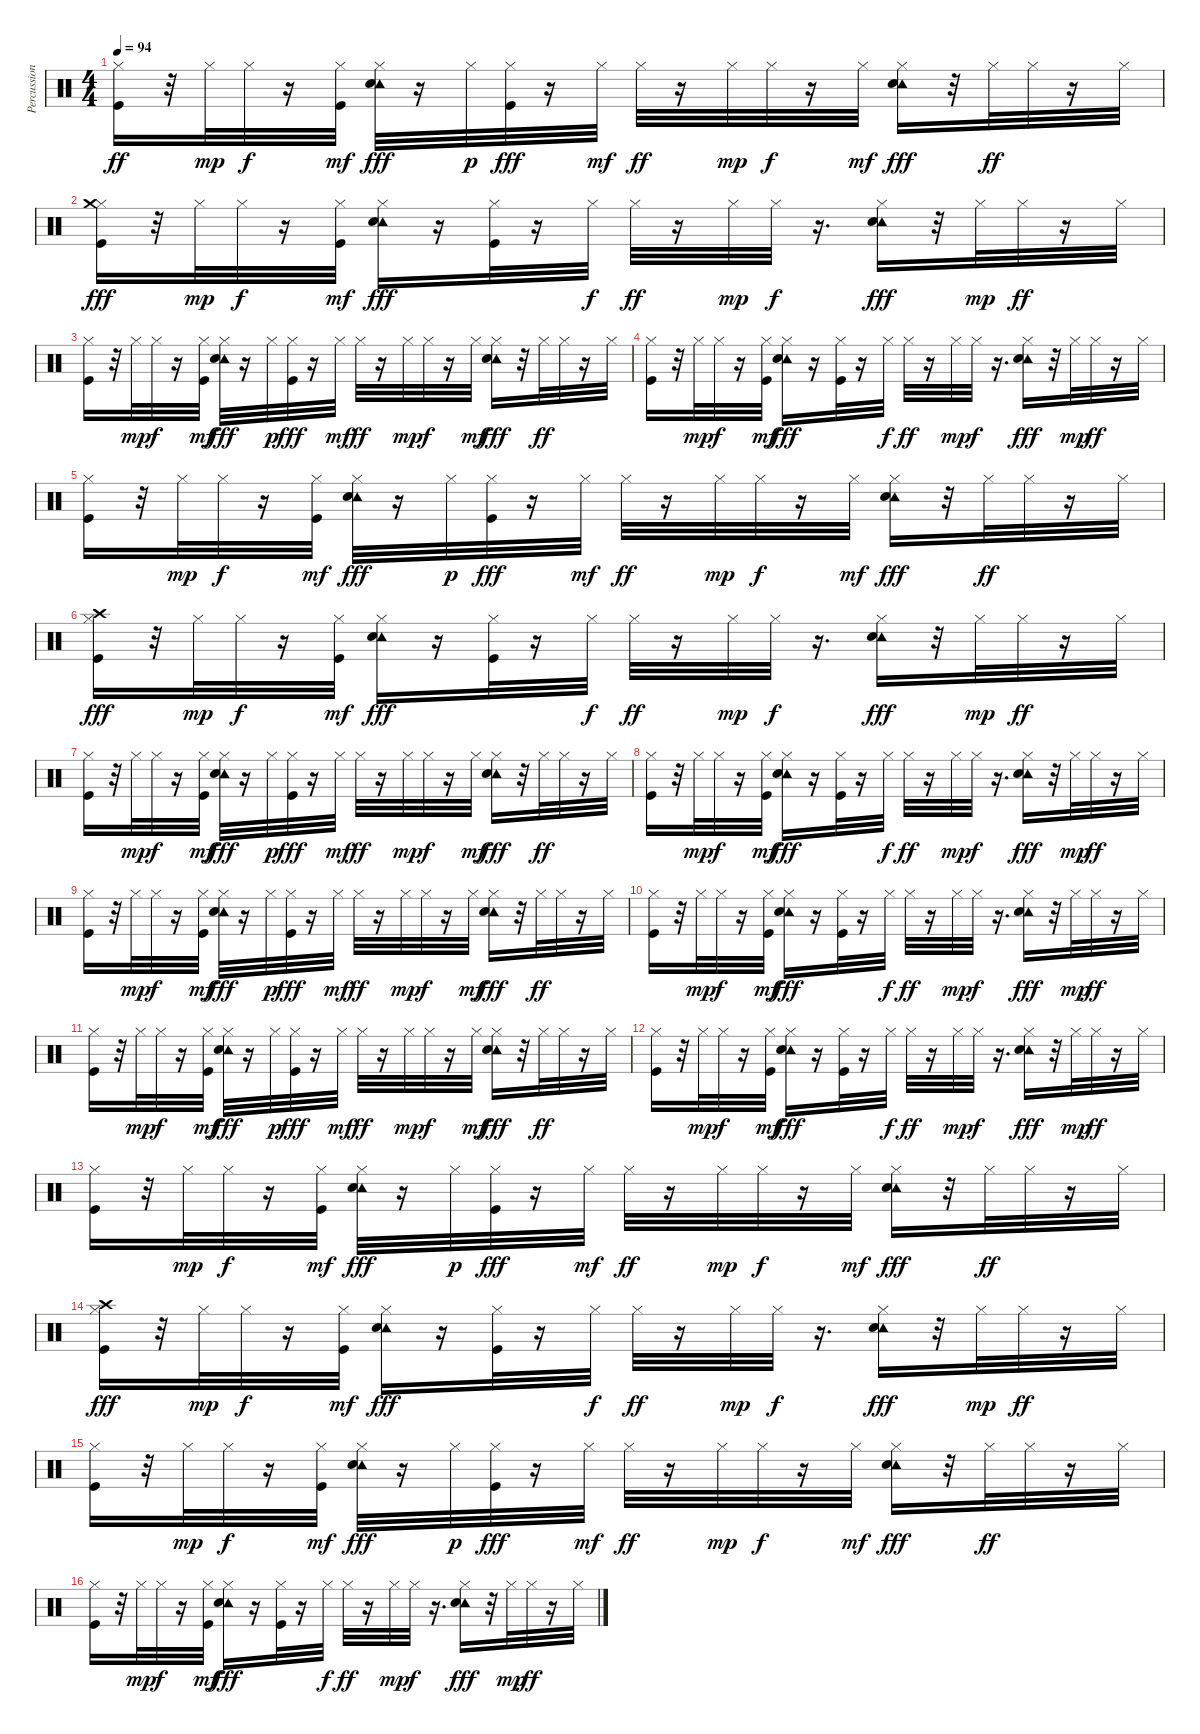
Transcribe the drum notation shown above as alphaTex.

\track ("Percussion" "Percussion") {instrument percussion}
\staff {score}
\articulation defaults
\ts (4 4)
\tempo 94
\clef neutral
\ks c
("Kick (hit)" "Hi-Hat (closed)").16{dy ff} r.32 "Hi-Hat (closed)".32{dy mp} "Hi-Hat (closed)".32{dy f} r.16 ("Kick (hit)" "Hi-Hat (closed)").32{dy mf} ("Hi-Hat (closed)" "Tambourine (hit)" "Snare (hit) 2").32{dy fff} r.16 "Hi-Hat (closed)".32{dy p} ("Kick (hit)" "Hi-Hat (closed)").32{dy fff} r.16 "Hi-Hat (closed)".32{dy mf} "Hi-Hat (closed)".32{dy ff} r.16 "Hi-Hat (closed)".32{dy mp} "Hi-Hat (closed)".32{dy f} r.16 "Hi-Hat (closed)".32{dy mf} ("Hi-Hat (closed)" "Tambourine (hit)" "Snare (hit) 2").16{dy fff} r.32 "Hi-Hat (closed)".32{dy ff} "Hi-Hat (closed)".32 r.16 "Hi-Hat (closed)".32 |
("Kick (hit)" "Hi-Hat (closed)" "Crash medium (hit)").16{dy fff} r.32 "Hi-Hat (closed)".32{dy mp} "Hi-Hat (closed)".32{dy f} r.16 ("Kick (hit)" "Hi-Hat (closed)").32{dy mf} ("Hi-Hat (closed)" "Tambourine (hit)" "Snare (hit) 2").16{dy fff} r.16 ("Kick (hit)" "Hi-Hat (closed)").32 r.16 "Hi-Hat (closed)".32{dy f} "Hi-Hat (closed)".32{dy ff} r.16 "Hi-Hat (closed)".32{dy mp} "Hi-Hat (closed)".32{dy f} r.16{d} ("Hi-Hat (closed)" "Tambourine (hit)" "Snare (hit) 2").16{dy fff} r.32 "Hi-Hat (closed)".32{dy mp} "Hi-Hat (closed)".32{dy ff} r.16 "Hi-Hat (closed)".32 |
("Kick (hit)" "Hi-Hat (closed)").16 r.32 "Hi-Hat (closed)".32{dy mp} "Hi-Hat (closed)".32{dy f} r.16 ("Kick (hit)" "Hi-Hat (closed)").32{dy mf} ("Hi-Hat (closed)" "Tambourine (hit)" "Snare (hit) 2").32{dy fff} r.16 "Hi-Hat (closed)".32{dy p} ("Kick (hit)" "Hi-Hat (closed)").32{dy fff} r.16 "Hi-Hat (closed)".32{dy mf} "Hi-Hat (closed)".32{dy ff} r.16 "Hi-Hat (closed)".32{dy mp} "Hi-Hat (closed)".32{dy f} r.16 "Hi-Hat (closed)".32{dy mf} ("Hi-Hat (closed)" "Tambourine (hit)" "Snare (hit) 2").16{dy fff} r.32 "Hi-Hat (closed)".32{dy ff} "Hi-Hat (closed)".32 r.16 "Hi-Hat (closed)".32 |
("Kick (hit)" "Hi-Hat (closed)").16 r.32 "Hi-Hat (closed)".32{dy mp} "Hi-Hat (closed)".32{dy f} r.16 ("Kick (hit)" "Hi-Hat (closed)").32{dy mf} ("Hi-Hat (closed)" "Tambourine (hit)" "Snare (hit) 2").16{dy fff} r.16 ("Kick (hit)" "Hi-Hat (closed)").32 r.16 "Hi-Hat (closed)".32{dy f} "Hi-Hat (closed)".32{dy ff} r.16 "Hi-Hat (closed)".32{dy mp} "Hi-Hat (closed)".32{dy f} r.16{d} ("Hi-Hat (closed)" "Tambourine (hit)" "Snare (hit) 2").16{dy fff} r.32 "Hi-Hat (closed)".32{dy mp} "Hi-Hat (closed)".32{dy ff} r.16 "Hi-Hat (closed)".32 |
("Kick (hit)" "Hi-Hat (closed)").16 r.32 "Hi-Hat (closed)".32{dy mp} "Hi-Hat (closed)".32{dy f} r.16 ("Kick (hit)" "Hi-Hat (closed)").32{dy mf} ("Hi-Hat (closed)" "Tambourine (hit)" "Snare (hit) 2").32{dy fff} r.16 "Hi-Hat (closed)".32{dy p} ("Kick (hit)" "Hi-Hat (closed)").32{dy fff} r.16 "Hi-Hat (closed)".32{dy mf} "Hi-Hat (closed)".32{dy ff} r.16 "Hi-Hat (closed)".32{dy mp} "Hi-Hat (closed)".32{dy f} r.16 "Hi-Hat (closed)".32{dy mf} ("Hi-Hat (closed)" "Tambourine (hit)" "Snare (hit) 2").16{dy fff} r.32 "Hi-Hat (closed)".32{dy ff} "Hi-Hat (closed)".32 r.16 "Hi-Hat (closed)".32 |
("Kick (hit)" "Hi-Hat (closed)" "Crash high (hit)").16{dy fff} r.32 "Hi-Hat (closed)".32{dy mp} "Hi-Hat (closed)".32{dy f} r.16 ("Kick (hit)" "Hi-Hat (closed)").32{dy mf} ("Hi-Hat (closed)" "Tambourine (hit)" "Snare (hit) 2").16{dy fff} r.16 ("Kick (hit)" "Hi-Hat (closed)").32 r.16 "Hi-Hat (closed)".32{dy f} "Hi-Hat (closed)".32{dy ff} r.16 "Hi-Hat (closed)".32{dy mp} "Hi-Hat (closed)".32{dy f} r.16{d} ("Hi-Hat (closed)" "Tambourine (hit)" "Snare (hit) 2").16{dy fff} r.32 "Hi-Hat (closed)".32{dy mp} "Hi-Hat (closed)".32{dy ff} r.16 "Hi-Hat (closed)".32 |
("Kick (hit)" "Hi-Hat (closed)").16 r.32 "Hi-Hat (closed)".32{dy mp} "Hi-Hat (closed)".32{dy f} r.16 ("Kick (hit)" "Hi-Hat (closed)").32{dy mf} ("Hi-Hat (closed)" "Tambourine (hit)" "Snare (hit) 2").32{dy fff} r.16 "Hi-Hat (closed)".32{dy p} ("Kick (hit)" "Hi-Hat (closed)").32{dy fff} r.16 "Hi-Hat (closed)".32{dy mf} "Hi-Hat (closed)".32{dy ff} r.16 "Hi-Hat (closed)".32{dy mp} "Hi-Hat (closed)".32{dy f} r.16 "Hi-Hat (closed)".32{dy mf} ("Hi-Hat (closed)" "Tambourine (hit)" "Snare (hit) 2").16{dy fff} r.32 "Hi-Hat (closed)".32{dy ff} "Hi-Hat (closed)".32 r.16 "Hi-Hat (closed)".32 |
("Kick (hit)" "Hi-Hat (closed)").16 r.32 "Hi-Hat (closed)".32{dy mp} "Hi-Hat (closed)".32{dy f} r.16 ("Kick (hit)" "Hi-Hat (closed)").32{dy mf} ("Hi-Hat (closed)" "Tambourine (hit)" "Snare (hit) 2").16{dy fff} r.16 ("Kick (hit)" "Hi-Hat (closed)").32 r.16 "Hi-Hat (closed)".32{dy f} "Hi-Hat (closed)".32{dy ff} r.16 "Hi-Hat (closed)".32{dy mp} "Hi-Hat (closed)".32{dy f} r.16{d} ("Hi-Hat (closed)" "Tambourine (hit)" "Snare (hit) 2").16{dy fff} r.32 "Hi-Hat (closed)".32{dy mp} "Hi-Hat (closed)".32{dy ff} r.16 "Hi-Hat (closed)".32 |
("Kick (hit)" "Hi-Hat (closed)").16 r.32 "Hi-Hat (closed)".32{dy mp} "Hi-Hat (closed)".32{dy f} r.16 ("Kick (hit)" "Hi-Hat (closed)").32{dy mf} ("Hi-Hat (closed)" "Tambourine (hit)" "Snare (hit) 2").32{dy fff} r.16 "Hi-Hat (closed)".32{dy p} ("Kick (hit)" "Hi-Hat (closed)").32{dy fff} r.16 "Hi-Hat (closed)".32{dy mf} "Hi-Hat (closed)".32{dy ff} r.16 "Hi-Hat (closed)".32{dy mp} "Hi-Hat (closed)".32{dy f} r.16 "Hi-Hat (closed)".32{dy mf} ("Hi-Hat (closed)" "Tambourine (hit)" "Snare (hit) 2").16{dy fff} r.32 "Hi-Hat (closed)".32{dy ff} "Hi-Hat (closed)".32 r.16 "Hi-Hat (closed)".32 |
("Kick (hit)" "Hi-Hat (closed)").16 r.32 "Hi-Hat (closed)".32{dy mp} "Hi-Hat (closed)".32{dy f} r.16 ("Kick (hit)" "Hi-Hat (closed)").32{dy mf} ("Hi-Hat (closed)" "Tambourine (hit)" "Snare (hit) 2").16{dy fff} r.16 ("Kick (hit)" "Hi-Hat (closed)").32 r.16 "Hi-Hat (closed)".32{dy f} "Hi-Hat (closed)".32{dy ff} r.16 "Hi-Hat (closed)".32{dy mp} "Hi-Hat (closed)".32{dy f} r.16{d} ("Hi-Hat (closed)" "Tambourine (hit)" "Snare (hit) 2").16{dy fff} r.32 "Hi-Hat (closed)".32{dy mp} "Hi-Hat (closed)".32{dy ff} r.16 "Hi-Hat (closed)".32 |
("Kick (hit)" "Hi-Hat (closed)").16 r.32 "Hi-Hat (closed)".32{dy mp} "Hi-Hat (closed)".32{dy f} r.16 ("Kick (hit)" "Hi-Hat (closed)").32{dy mf} ("Hi-Hat (closed)" "Tambourine (hit)" "Snare (hit) 2").32{dy fff} r.16 "Hi-Hat (closed)".32{dy p} ("Kick (hit)" "Hi-Hat (closed)").32{dy fff} r.16 "Hi-Hat (closed)".32{dy mf} "Hi-Hat (closed)".32{dy ff} r.16 "Hi-Hat (closed)".32{dy mp} "Hi-Hat (closed)".32{dy f} r.16 "Hi-Hat (closed)".32{dy mf} ("Hi-Hat (closed)" "Tambourine (hit)" "Snare (hit) 2").16{dy fff} r.32 "Hi-Hat (closed)".32{dy ff} "Hi-Hat (closed)".32 r.16 "Hi-Hat (closed)".32 |
("Kick (hit)" "Hi-Hat (closed)").16 r.32 "Hi-Hat (closed)".32{dy mp} "Hi-Hat (closed)".32{dy f} r.16 ("Kick (hit)" "Hi-Hat (closed)").32{dy mf} ("Hi-Hat (closed)" "Tambourine (hit)" "Snare (hit) 2").16{dy fff} r.16 ("Kick (hit)" "Hi-Hat (closed)").32 r.16 "Hi-Hat (closed)".32{dy f} "Hi-Hat (closed)".32{dy ff} r.16 "Hi-Hat (closed)".32{dy mp} "Hi-Hat (closed)".32{dy f} r.16{d} ("Hi-Hat (closed)" "Tambourine (hit)" "Snare (hit) 2").16{dy fff} r.32 "Hi-Hat (closed)".32{dy mp} "Hi-Hat (closed)".32{dy ff} r.16 "Hi-Hat (closed)".32 |
("Kick (hit)" "Hi-Hat (closed)").16 r.32 "Hi-Hat (closed)".32{dy mp} "Hi-Hat (closed)".32{dy f} r.16 ("Kick (hit)" "Hi-Hat (closed)").32{dy mf} ("Hi-Hat (closed)" "Tambourine (hit)" "Snare (hit) 2").32{dy fff} r.16 "Hi-Hat (closed)".32{dy p} ("Kick (hit)" "Hi-Hat (closed)").32{dy fff} r.16 "Hi-Hat (closed)".32{dy mf} "Hi-Hat (closed)".32{dy ff} r.16 "Hi-Hat (closed)".32{dy mp} "Hi-Hat (closed)".32{dy f} r.16 "Hi-Hat (closed)".32{dy mf} ("Hi-Hat (closed)" "Tambourine (hit)" "Snare (hit) 2").16{dy fff} r.32 "Hi-Hat (closed)".32{dy ff} "Hi-Hat (closed)".32 r.16 "Hi-Hat (closed)".32 |
("Kick (hit)" "Hi-Hat (closed)" "Crash high (hit)").16{dy fff} r.32 "Hi-Hat (closed)".32{dy mp} "Hi-Hat (closed)".32{dy f} r.16 ("Kick (hit)" "Hi-Hat (closed)").32{dy mf} ("Hi-Hat (closed)" "Tambourine (hit)" "Snare (hit) 2").16{dy fff} r.16 ("Kick (hit)" "Hi-Hat (closed)").32 r.16 "Hi-Hat (closed)".32{dy f} "Hi-Hat (closed)".32{dy ff} r.16 "Hi-Hat (closed)".32{dy mp} "Hi-Hat (closed)".32{dy f} r.16{d} ("Hi-Hat (closed)" "Tambourine (hit)" "Snare (hit) 2").16{dy fff} r.32 "Hi-Hat (closed)".32{dy mp} "Hi-Hat (closed)".32{dy ff} r.16 "Hi-Hat (closed)".32 |
("Kick (hit)" "Hi-Hat (closed)").16 r.32 "Hi-Hat (closed)".32{dy mp} "Hi-Hat (closed)".32{dy f} r.16 ("Kick (hit)" "Hi-Hat (closed)").32{dy mf} ("Hi-Hat (closed)" "Tambourine (hit)" "Snare (hit) 2").32{dy fff} r.16 "Hi-Hat (closed)".32{dy p} ("Kick (hit)" "Hi-Hat (closed)").32{dy fff} r.16 "Hi-Hat (closed)".32{dy mf} "Hi-Hat (closed)".32{dy ff} r.16 "Hi-Hat (closed)".32{dy mp} "Hi-Hat (closed)".32{dy f} r.16 "Hi-Hat (closed)".32{dy mf} ("Hi-Hat (closed)" "Tambourine (hit)" "Snare (hit) 2").16{dy fff} r.32 "Hi-Hat (closed)".32{dy ff} "Hi-Hat (closed)".32 r.16 "Hi-Hat (closed)".32 |
("Kick (hit)" "Hi-Hat (closed)").16 r.32 "Hi-Hat (closed)".32{dy mp} "Hi-Hat (closed)".32{dy f} r.16 ("Kick (hit)" "Hi-Hat (closed)").32{dy mf} ("Hi-Hat (closed)" "Tambourine (hit)" "Snare (hit) 2").16{dy fff} r.16 ("Kick (hit)" "Hi-Hat (closed)").32 r.16 "Hi-Hat (closed)".32{dy f} "Hi-Hat (closed)".32{dy ff} r.16 "Hi-Hat (closed)".32{dy mp} "Hi-Hat (closed)".32{dy f} r.16{d} ("Hi-Hat (closed)" "Tambourine (hit)" "Snare (hit) 2").16{dy fff} r.32 "Hi-Hat (closed)".32{dy mp} "Hi-Hat (closed)".32{dy ff} r.16 "Hi-Hat (closed)".32
